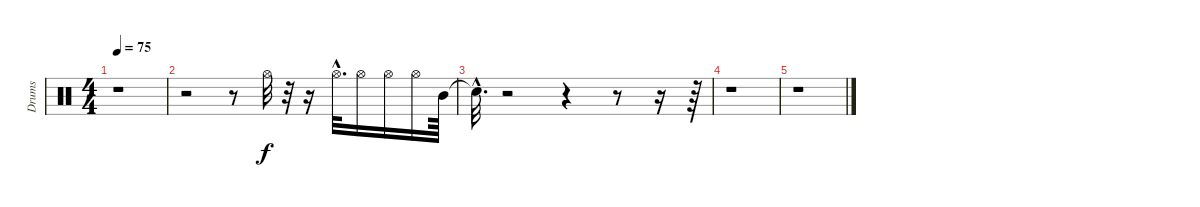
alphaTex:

\track ("Drums" "Drums") {instrument percussion}
\staff {score}
\articulation defaults
\ts (4 4)
\tempo 75
\clef neutral
\ks c
r.1{dy f} |
r.2 r.8 "Hi-Hat (open)".32 r.32 r.16 "Hi-Hat (open)"{hac}.32{d} "Hi-Hat (open)".16 "Hi-Hat (open)".16 "Hi-Hat (open)".16 "Mid Tom (hit)".64 |
"Snare (hit)"{hac t}.32{d} r.2 r.4 r.8 r.16 r.64 |
r.1 |
r.1
